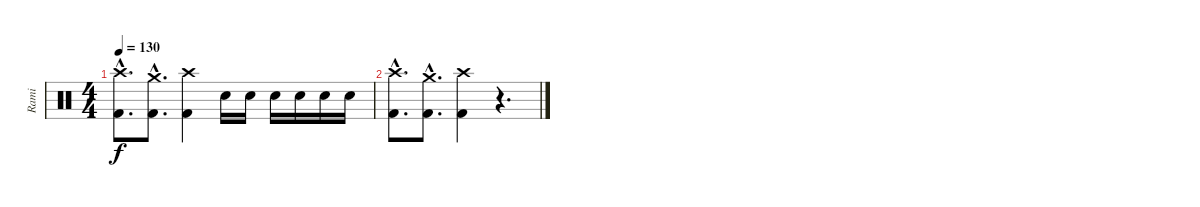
\track ("Rami" "Rami") {instrument percussion}
\staff {score}
\articulation defaults
\ts (4 4)
\tempo 130
\clef neutral
\ks c
("Crash high (hit)"{hac} "Kick (hit) 2"{hac}).8{d dy f} ("Crash medium (hit)"{hac} "Kick (hit) 2"{hac}).8{d} ("Crash high (hit)" "Kick (hit) 2").4 "Electric Snare (hit)".16 "Electric Snare (hit)".16 "Electric Snare (hit)".16 "Electric Snare (hit)".16 "Electric Snare (hit)".16 "Electric Snare (hit)".16 |
("Crash high (hit)"{hac} "Kick (hit) 2"{hac}).8{d} ("Crash medium (hit)"{hac} "Kick (hit) 2"{hac}).8{d} ("Crash high (hit)" "Kick (hit) 2").4 r.4{d}
